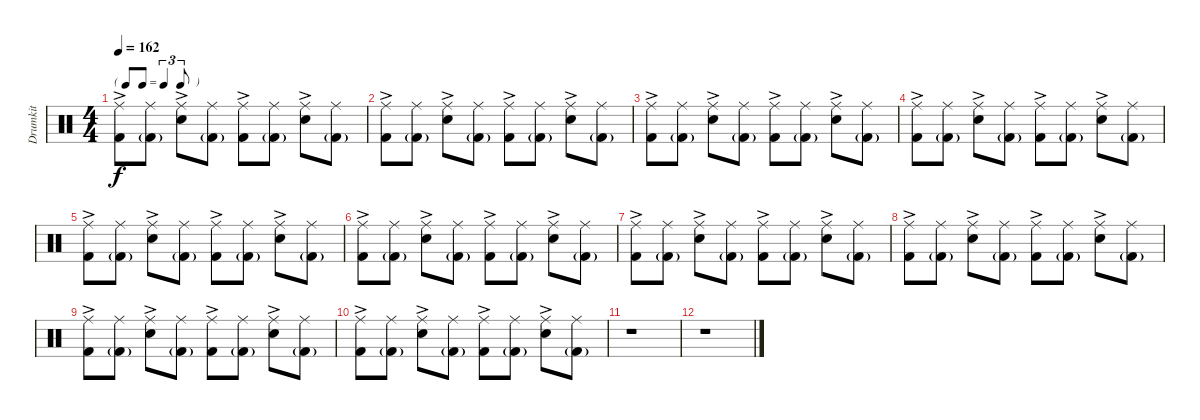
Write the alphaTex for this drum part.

\track ("Drumkit" "Drumkit") {instrument percussion}
\staff {score}
\articulation defaults
\ts (4 4)
\tf triplet8th
\tempo 162
\clef neutral
\ks c
("Kick (hit) 2" "Ride (middle)"{ac}).8{dy f} ("Kick (hit) 2"{g} "Ride (middle)").8 ("Snare (hit) 2" "Ride (middle)"{ac}).8 ("Kick (hit) 2"{g} "Ride (middle)").8 ("Kick (hit) 2" "Ride (middle)"{ac}).8 ("Kick (hit) 2"{g} "Ride (middle)").8 ("Snare (hit) 2" "Ride (middle)"{ac}).8 ("Kick (hit) 2"{g} "Ride (middle)").8 |
("Kick (hit) 2" "Ride (middle)"{ac}).8 ("Kick (hit) 2"{g} "Ride (middle)").8 ("Snare (hit) 2" "Ride (middle)"{ac}).8 ("Kick (hit) 2"{g} "Ride (middle)").8 ("Kick (hit) 2" "Ride (middle)"{ac}).8 ("Kick (hit) 2"{g} "Ride (middle)").8 ("Snare (hit) 2" "Ride (middle)"{ac}).8 ("Kick (hit) 2"{g} "Ride (middle)").8 |
("Kick (hit) 2" "Ride (middle)"{ac}).8 ("Kick (hit) 2"{g} "Ride (middle)").8 ("Snare (hit) 2" "Ride (middle)"{ac}).8 ("Kick (hit) 2"{g} "Ride (middle)").8 ("Kick (hit) 2" "Ride (middle)"{ac}).8 ("Kick (hit) 2"{g} "Ride (middle)").8 ("Snare (hit) 2" "Ride (middle)"{ac}).8 ("Kick (hit) 2"{g} "Ride (middle)").8 |
("Kick (hit) 2" "Ride (middle)"{ac}).8 ("Kick (hit) 2"{g} "Ride (middle)").8 ("Snare (hit) 2" "Ride (middle)"{ac}).8 ("Kick (hit) 2"{g} "Ride (middle)").8 ("Kick (hit) 2" "Ride (middle)"{ac}).8 ("Kick (hit) 2"{g} "Ride (middle)").8 ("Snare (hit) 2" "Ride (middle)"{ac}).8 ("Kick (hit) 2"{g} "Ride (middle)").8 |
("Kick (hit) 2" "Ride (middle)"{ac}).8 ("Kick (hit) 2"{g} "Ride (middle)").8 ("Snare (hit) 2" "Ride (middle)"{ac}).8 ("Kick (hit) 2"{g} "Ride (middle)").8 ("Kick (hit) 2" "Ride (middle)"{ac}).8 ("Kick (hit) 2"{g} "Ride (middle)").8 ("Snare (hit) 2" "Ride (middle)"{ac}).8 ("Kick (hit) 2"{g} "Ride (middle)").8 |
("Kick (hit) 2" "Ride (middle)"{ac}).8 ("Kick (hit) 2"{g} "Ride (middle)").8 ("Snare (hit) 2" "Ride (middle)"{ac}).8 ("Kick (hit) 2"{g} "Ride (middle)").8 ("Kick (hit) 2" "Ride (middle)"{ac}).8 ("Kick (hit) 2"{g} "Ride (middle)").8 ("Snare (hit) 2" "Ride (middle)"{ac}).8 ("Kick (hit) 2"{g} "Ride (middle)").8 |
("Kick (hit) 2" "Ride (middle)"{ac}).8 ("Kick (hit) 2"{g} "Ride (middle)").8 ("Snare (hit) 2" "Ride (middle)"{ac}).8 ("Kick (hit) 2"{g} "Ride (middle)").8 ("Kick (hit) 2" "Ride (middle)"{ac}).8 ("Kick (hit) 2"{g} "Ride (middle)").8 ("Snare (hit) 2" "Ride (middle)"{ac}).8 ("Kick (hit) 2"{g} "Ride (middle)").8 |
("Kick (hit) 2" "Ride (middle)"{ac}).8 ("Kick (hit) 2"{g} "Ride (middle)").8 ("Snare (hit) 2" "Ride (middle)"{ac}).8 ("Kick (hit) 2"{g} "Ride (middle)").8 ("Kick (hit) 2" "Ride (middle)"{ac}).8 ("Kick (hit) 2"{g} "Ride (middle)").8 ("Snare (hit) 2" "Ride (middle)"{ac}).8 ("Kick (hit) 2"{g} "Ride (middle)").8 |
("Kick (hit) 2" "Ride (middle)"{ac}).8 ("Kick (hit) 2"{g} "Ride (middle)").8 ("Snare (hit) 2" "Ride (middle)"{ac}).8 ("Kick (hit) 2"{g} "Ride (middle)").8 ("Kick (hit) 2" "Ride (middle)"{ac}).8 ("Kick (hit) 2"{g} "Ride (middle)").8 ("Snare (hit) 2" "Ride (middle)"{ac}).8 ("Kick (hit) 2"{g} "Ride (middle)").8 |
("Kick (hit) 2" "Ride (middle)"{ac}).8 ("Kick (hit) 2"{g} "Ride (middle)").8 ("Snare (hit) 2" "Ride (middle)"{ac}).8 ("Kick (hit) 2"{g} "Ride (middle)").8 ("Kick (hit) 2" "Ride (middle)"{ac}).8 ("Kick (hit) 2"{g} "Ride (middle)").8 ("Snare (hit) 2" "Ride (middle)"{ac}).8 ("Kick (hit) 2"{g} "Ride (middle)").8 |
r.1 |
r.1
